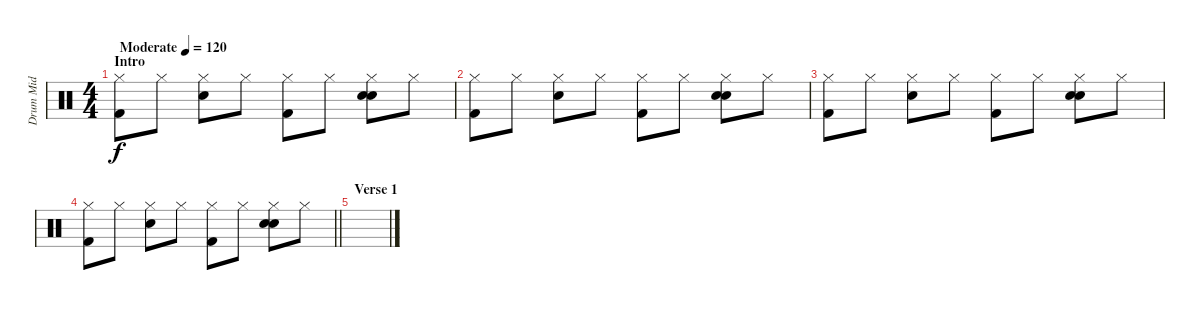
\track ("Drum Mid" "Drum Mid") {instrument percussion}
\staff {score}
\articulation defaults
\ts (4 4)
\section ("" "Intro")
\tempo (120 "Moderate")
\clef neutral
\ks c
("Hi-Hat (closed)" "Kick (hit) 2").8{dy f} "Hi-Hat (closed)".8 ("Hi-Hat (closed)" "Snare (hit) 2").8 "Hi-Hat (closed)".8 ("Hi-Hat (closed)" "Kick (hit) 2").8 "Hi-Hat (closed)".8 ("Hi-Hat (closed)" "Snare (hit) 2" "Hand Clap (hit)").8 "Hi-Hat (closed)".8 |
("Hi-Hat (closed)" "Kick (hit) 2").8 "Hi-Hat (closed)".8 ("Hi-Hat (closed)" "Snare (hit) 2").8 "Hi-Hat (closed)".8 ("Hi-Hat (closed)" "Kick (hit) 2").8 "Hi-Hat (closed)".8 ("Hi-Hat (closed)" "Snare (hit) 2" "Hand Clap (hit)").8 "Hi-Hat (closed)".8 |
("Hi-Hat (closed)" "Kick (hit) 2").8 "Hi-Hat (closed)".8 ("Hi-Hat (closed)" "Snare (hit) 2").8 "Hi-Hat (closed)".8 ("Hi-Hat (closed)" "Kick (hit) 2").8 "Hi-Hat (closed)".8 ("Hi-Hat (closed)" "Snare (hit) 2" "Hand Clap (hit)").8 "Hi-Hat (closed)".8 |
\barLineRight lightlight
("Hi-Hat (closed)" "Kick (hit) 2").8 "Hi-Hat (closed)".8 ("Hi-Hat (closed)" "Snare (hit) 2").8 "Hi-Hat (closed)".8 ("Hi-Hat (closed)" "Kick (hit) 2").8 "Hi-Hat (closed)".8 ("Hi-Hat (closed)" "Snare (hit) 2" "Hand Clap (hit)").8 "Hi-Hat (closed)".8 |
\section ("" "Verse 1")
